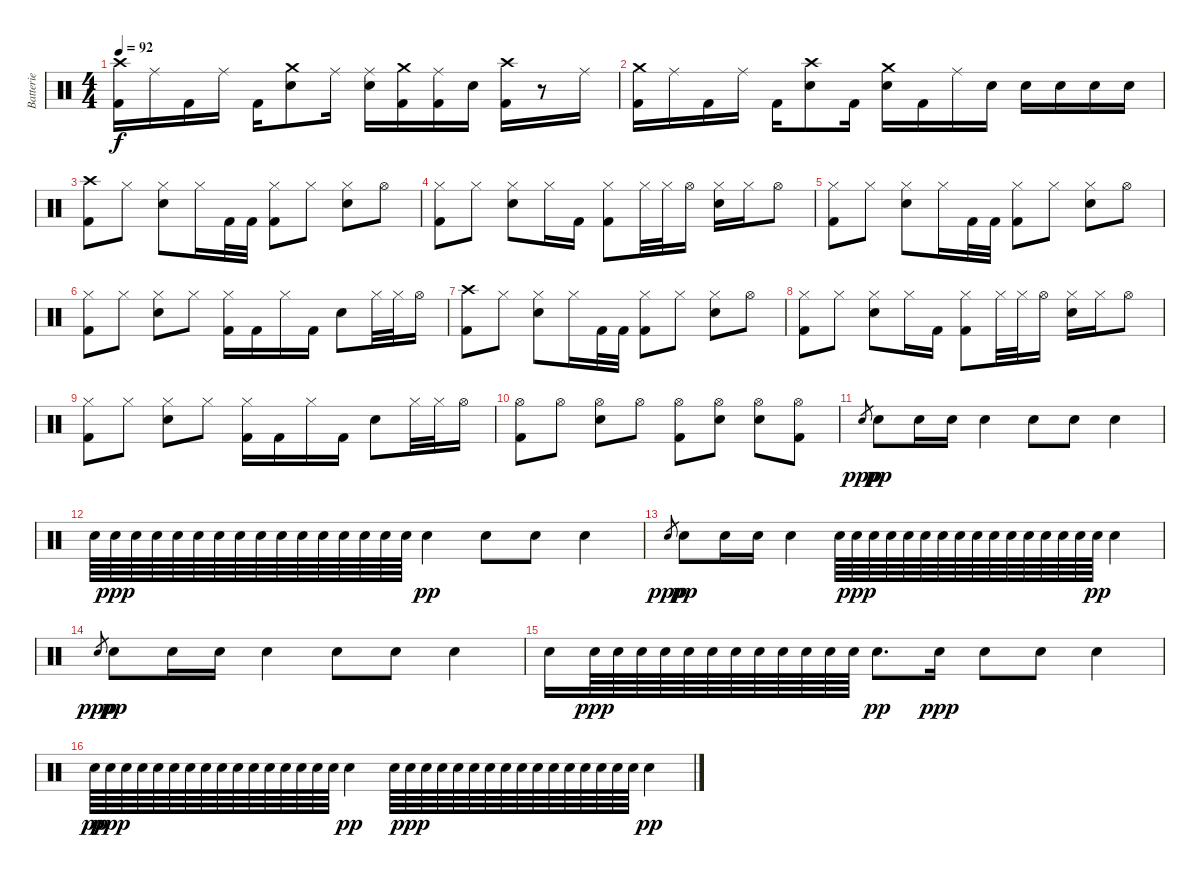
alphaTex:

\track ("Batterie" "Batterie") {instrument percussion}
\staff {score}
\articulation defaults
\ts (4 4)
\tempo 92
\clef neutral
\ks c
("Crash high (hit)" "Kick (hit) 2").16{dy f} "Ride (middle)".16 "Kick (hit) 2".16 "Ride (middle)".16 "Kick (hit) 2".16 ("Crash medium (hit)" "Electric Snare (hit)").8 "Ride (middle)".16 ("Ride (middle)" "Electric Snare (hit)").16 ("Crash medium (hit)" "Kick (hit) 2").16 ("Ride (middle)" "Kick (hit) 2").16 "Electric Snare (hit)".16 ("Crash high (hit)" "Kick (hit) 2").16 r.8 "Ride (middle)".16 |
("Crash medium (hit)" "Kick (hit) 2").16 "Ride (middle)".16 "Kick (hit) 2".16 "Ride (middle)".16 "Kick (hit) 2".16 ("Crash high (hit)" "Electric Snare (hit)").8 "Kick (hit) 2".16 ("Crash medium (hit)" "Electric Snare (hit)").16 "Kick (hit) 2".16 "Ride (middle)".16 "Electric Snare (hit)".16 "Electric Snare (hit)".16 "Electric Snare (hit)".16 "Electric Snare (hit)".16 "Electric Snare (hit)".16 |
("Crash high (hit)" "Kick (hit) 2").8 "Hi-Hat (closed)".8 ("Hi-Hat (closed)" "Electric Snare (hit)").8 "Hi-Hat (closed)".16 "Kick (hit) 2".32 "Kick (hit) 2".32 ("Hi-Hat (closed)" "Kick (hit) 2").8 "Hi-Hat (closed)".8 ("Hi-Hat (closed)" "Electric Snare (hit)").8 "Hi-Hat (open)".8 |
("Hi-Hat (closed)" "Kick (hit) 2").8 "Hi-Hat (closed)".8 ("Hi-Hat (closed)" "Electric Snare (hit)").8 "Hi-Hat (closed)".16 "Kick (hit) 2".16 ("Hi-Hat (closed)" "Kick (hit) 2").8 "Hi-Hat (closed)".32 "Hi-Hat (closed)".32 "Hi-Hat (open)".16 ("Hi-Hat (closed)" "Electric Snare (hit)").16 "Hi-Hat (closed)".16 "Hi-Hat (open)".8 |
("Hi-Hat (closed)" "Kick (hit) 2").8 "Hi-Hat (closed)".8 ("Hi-Hat (closed)" "Electric Snare (hit)").8 "Hi-Hat (closed)".16 "Kick (hit) 2".32 "Kick (hit) 2".32 ("Hi-Hat (closed)" "Kick (hit) 2").8 "Hi-Hat (closed)".8 ("Hi-Hat (closed)" "Electric Snare (hit)").8 "Hi-Hat (open)".8 |
("Hi-Hat (closed)" "Kick (hit) 2").8 "Hi-Hat (closed)".8 ("Hi-Hat (closed)" "Electric Snare (hit)").8 "Hi-Hat (closed)".8 ("Hi-Hat (closed)" "Kick (hit) 2").16 "Kick (hit) 2".16 "Hi-Hat (closed)".16 "Kick (hit) 2".16 "Electric Snare (hit)".8 "Hi-Hat (closed)".32 "Hi-Hat (closed)".32 "Hi-Hat (open)".16 |
("Crash high (hit)" "Kick (hit) 2").8 "Hi-Hat (closed)".8 ("Hi-Hat (closed)" "Electric Snare (hit)").8 "Hi-Hat (closed)".16 "Kick (hit) 2".32 "Kick (hit) 2".32 ("Hi-Hat (closed)" "Kick (hit) 2").8 "Hi-Hat (closed)".8 ("Hi-Hat (closed)" "Electric Snare (hit)").8 "Hi-Hat (open)".8 |
("Hi-Hat (closed)" "Kick (hit) 2").8 "Hi-Hat (closed)".8 ("Hi-Hat (closed)" "Electric Snare (hit)").8 "Hi-Hat (closed)".16 "Kick (hit) 2".16 ("Hi-Hat (closed)" "Kick (hit) 2").8 "Hi-Hat (closed)".32 "Hi-Hat (closed)".32 "Hi-Hat (open)".16 ("Hi-Hat (closed)" "Electric Snare (hit)").16 "Hi-Hat (closed)".16 "Hi-Hat (open)".8 |
("Hi-Hat (closed)" "Kick (hit) 2").8 "Hi-Hat (closed)".8 ("Hi-Hat (closed)" "Electric Snare (hit)").8 "Hi-Hat (closed)".8 ("Hi-Hat (closed)" "Kick (hit) 2").16 "Kick (hit) 2".16 "Hi-Hat (closed)".16 "Kick (hit) 2".16 "Electric Snare (hit)".8 "Hi-Hat (closed)".32 "Hi-Hat (closed)".32 "Hi-Hat (open)".16 |
("Hi-Hat (open)" "Kick (hit) 2").8 "Hi-Hat (open)".8 ("Hi-Hat (open)" "Electric Snare (hit)").8 "Hi-Hat (open)".8 ("Hi-Hat (open)" "Kick (hit) 2").8 ("Hi-Hat (open)" "Electric Snare (hit)").8 ("Hi-Hat (open)" "Electric Snare (hit)").8 ("Hi-Hat (open)" "Kick (hit) 2").8 |
"Electric Snare (hit)".8{gr dy ppp} "Electric Snare (hit)".8{dy pp} "Electric Snare (hit)".16 "Electric Snare (hit)".16 "Electric Snare (hit)".4 "Electric Snare (hit)".8 "Electric Snare (hit)".8 "Electric Snare (hit)".4 |
"Electric Snare (hit)".64 "Electric Snare (hit)".64{dy ppp} "Electric Snare (hit)".64 "Electric Snare (hit)".64 "Electric Snare (hit)".64 "Electric Snare (hit)".64 "Electric Snare (hit)".64 "Electric Snare (hit)".64 "Electric Snare (hit)".64 "Electric Snare (hit)".64 "Electric Snare (hit)".64 "Electric Snare (hit)".64 "Electric Snare (hit)".64 "Electric Snare (hit)".64 "Electric Snare (hit)".64 "Electric Snare (hit)".64 "Electric Snare (hit)".4{dy pp} "Electric Snare (hit)".8 "Electric Snare (hit)".8 "Electric Snare (hit)".4 |
"Electric Snare (hit)".8{gr dy ppp} "Electric Snare (hit)".8{dy pp} "Electric Snare (hit)".16 "Electric Snare (hit)".16 "Electric Snare (hit)".4 "Electric Snare (hit)".64 "Electric Snare (hit)".64{dy ppp} "Electric Snare (hit)".64 "Electric Snare (hit)".64 "Electric Snare (hit)".64 "Electric Snare (hit)".64 "Electric Snare (hit)".64 "Electric Snare (hit)".64 "Electric Snare (hit)".64 "Electric Snare (hit)".64 "Electric Snare (hit)".64 "Electric Snare (hit)".64 "Electric Snare (hit)".64 "Electric Snare (hit)".64 "Electric Snare (hit)".64 "Electric Snare (hit)".64{dy pp} "Electric Snare (hit)".4 |
"Electric Snare (hit)".8{gr dy ppp} "Electric Snare (hit)".8{dy pp} "Electric Snare (hit)".16 "Electric Snare (hit)".16 "Electric Snare (hit)".4 "Electric Snare (hit)".8 "Electric Snare (hit)".8 "Electric Snare (hit)".4 |
"Electric Snare (hit)".16 "Electric Snare (hit)".64{dy ppp} "Electric Snare (hit)".64 "Electric Snare (hit)".64 "Electric Snare (hit)".64 "Electric Snare (hit)".64 "Electric Snare (hit)".64 "Electric Snare (hit)".64 "Electric Snare (hit)".64 "Electric Snare (hit)".64 "Electric Snare (hit)".64 "Electric Snare (hit)".64 "Electric Snare (hit)".64 "Electric Snare (hit)".8{d dy pp} "Electric Snare (hit)".16{dy ppp} "Electric Snare (hit)".8 "Electric Snare (hit)".8 "Electric Snare (hit)".4 |
"Electric Snare (hit)".64{dy pp} "Electric Snare (hit)".64{dy ppp} "Electric Snare (hit)".64 "Electric Snare (hit)".64 "Electric Snare (hit)".64 "Electric Snare (hit)".64 "Electric Snare (hit)".64 "Electric Snare (hit)".64 "Electric Snare (hit)".64 "Electric Snare (hit)".64 "Electric Snare (hit)".64 "Electric Snare (hit)".64 "Electric Snare (hit)".64 "Electric Snare (hit)".64 "Electric Snare (hit)".64 "Electric Snare (hit)".64 "Electric Snare (hit)".4{dy pp} "Electric Snare (hit)".64 "Electric Snare (hit)".64{dy ppp} "Electric Snare (hit)".64 "Electric Snare (hit)".64 "Electric Snare (hit)".64 "Electric Snare (hit)".64 "Electric Snare (hit)".64 "Electric Snare (hit)".64 "Electric Snare (hit)".64 "Electric Snare (hit)".64 "Electric Snare (hit)".64 "Electric Snare (hit)".64 "Electric Snare (hit)".64 "Electric Snare (hit)".64 "Electric Snare (hit)".64 "Electric Snare (hit)".64 "Electric Snare (hit)".4{dy pp}
